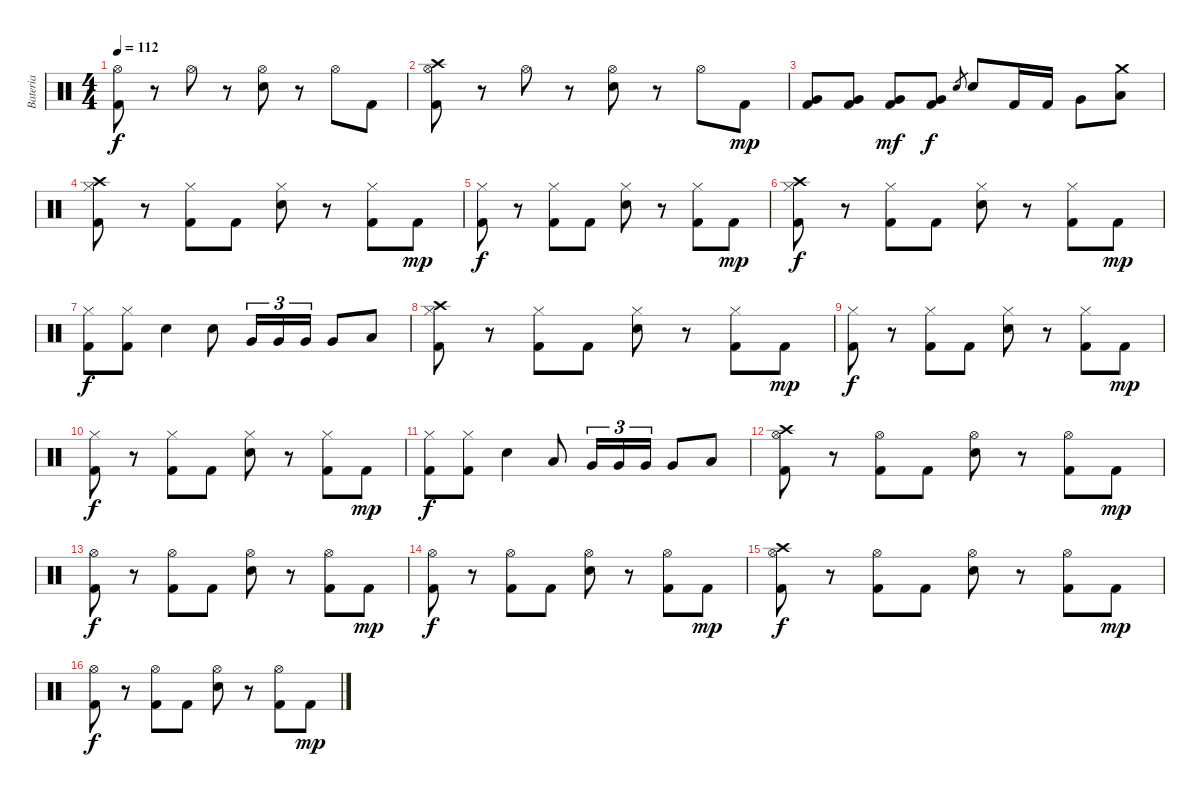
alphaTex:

\track ("Bateria" "Bateria") {instrument percussion}
\staff {score}
\articulation defaults
\ts (4 4)
\tempo 112
\clef neutral
\ks c
("Hi-Hat (open)" "Kick (hit) 2").8{dy f} r.8 "Hi-Hat (open)".8 r.8 ("Hi-Hat (open)" "Snare (hit) 2").8 r.8 "Hi-Hat (open)".8 "Kick (hit) 2".8 |
("Hi-Hat (open)" "Kick (hit) 2" "Crash high (hit)").8 r.8 "Hi-Hat (open)".8 r.8 ("Hi-Hat (open)" "Snare (hit) 2").8 r.8 "Hi-Hat (open)".8 "Kick (hit) 2".8{dy mp} |
("Very Low Tom (hit)" "Kick (hit) 2").8 ("Very Low Tom (hit)" "Kick (hit) 2").8 ("Very Low Tom (hit)" "Kick (hit) 2").8{dy mf} ("Very Low Tom (hit)" "Kick (hit) 2").8{dy f} "Snare (hit) 2".8{gr} "Snare (hit) 2".8 "Kick (hit) 2".16 "Kick (hit) 2".16 "Very Low Tom (hit)".8 ("Low Floor Tom (hit)" "Crash medium (hit)").8 |
("Hi-Hat (closed)" "Kick (hit) 2" "Crash high (hit)").8 r.8 ("Hi-Hat (closed)" "Kick (hit) 2").8 "Kick (hit) 2".8 ("Hi-Hat (closed)" "Snare (hit) 2").8 r.8 ("Hi-Hat (closed)" "Kick (hit) 2").8 "Kick (hit) 2".8{dy mp} |
("Hi-Hat (closed)" "Kick (hit) 2").8{dy f} r.8 ("Hi-Hat (closed)" "Kick (hit) 2").8 "Kick (hit) 2".8 ("Hi-Hat (closed)" "Snare (hit) 2").8 r.8 ("Hi-Hat (closed)" "Kick (hit) 2").8 "Kick (hit) 2".8{dy mp} |
("Hi-Hat (closed)" "Kick (hit) 2" "Crash high (hit)").8{dy f} r.8 ("Hi-Hat (closed)" "Kick (hit) 2").8 "Kick (hit) 2".8 ("Hi-Hat (closed)" "Snare (hit) 2").8 r.8 ("Hi-Hat (closed)" "Kick (hit) 2").8 "Kick (hit) 2".8{dy mp} |
("Hi-Hat (closed)" "Kick (hit) 2").8{dy f} ("Hi-Hat (closed)" "Kick (hit) 2").8 "Snare (hit) 2".4 "Snare (hit) 2".8 "Very Low Tom (hit)".16{tu (3 2)} "Very Low Tom (hit)".16{tu (3 2)} "Very Low Tom (hit)".16{tu (3 2)} "Very Low Tom (hit)".8 "Low Floor Tom (hit)".8 |
("Hi-Hat (closed)" "Kick (hit) 2" "Crash high (hit)").8 r.8 ("Hi-Hat (closed)" "Kick (hit) 2").8 "Kick (hit) 2".8 ("Hi-Hat (closed)" "Snare (hit) 2").8 r.8 ("Hi-Hat (closed)" "Kick (hit) 2").8 "Kick (hit) 2".8{dy mp} |
("Hi-Hat (closed)" "Kick (hit) 2").8{dy f} r.8 ("Hi-Hat (closed)" "Kick (hit) 2").8 "Kick (hit) 2".8 ("Hi-Hat (closed)" "Snare (hit) 2").8 r.8 ("Hi-Hat (closed)" "Kick (hit) 2").8 "Kick (hit) 2".8{dy mp} |
("Hi-Hat (closed)" "Kick (hit) 2").8{dy f} r.8 ("Hi-Hat (closed)" "Kick (hit) 2").8 "Kick (hit) 2".8 ("Hi-Hat (closed)" "Snare (hit) 2").8 r.8 ("Hi-Hat (closed)" "Kick (hit) 2").8 "Kick (hit) 2".8{dy mp} |
("Hi-Hat (closed)" "Kick (hit) 2").8{dy f} ("Hi-Hat (closed)" "Kick (hit) 2").8 "Snare (hit) 2".4 "Low Tom (hit)".8 "Very Low Tom (hit)".16{tu (3 2)} "Very Low Tom (hit)".16{tu (3 2)} "Very Low Tom (hit)".16{tu (3 2)} "Very Low Tom (hit)".8 "Low Floor Tom (hit)".8 |
("Hi-Hat (open)" "Kick (hit) 2" "Crash high (hit)").8 r.8 ("Hi-Hat (open)" "Kick (hit) 2").8 "Kick (hit) 2".8 ("Hi-Hat (open)" "Snare (hit) 2").8 r.8 ("Hi-Hat (open)" "Kick (hit) 2").8 "Kick (hit) 2".8{dy mp} |
("Hi-Hat (open)" "Kick (hit) 2").8{dy f} r.8 ("Hi-Hat (open)" "Kick (hit) 2").8 "Kick (hit) 2".8 ("Hi-Hat (open)" "Snare (hit) 2").8 r.8 ("Hi-Hat (open)" "Kick (hit) 2").8 "Kick (hit) 2".8{dy mp} |
("Hi-Hat (open)" "Kick (hit) 2").8{dy f} r.8 ("Hi-Hat (open)" "Kick (hit) 2").8 "Kick (hit) 2".8 ("Hi-Hat (open)" "Snare (hit) 2").8 r.8 ("Hi-Hat (open)" "Kick (hit) 2").8 "Kick (hit) 2".8{dy mp} |
("Hi-Hat (open)" "Kick (hit) 2" "Crash high (hit)").8{dy f} r.8 ("Hi-Hat (open)" "Kick (hit) 2").8 "Kick (hit) 2".8 ("Hi-Hat (open)" "Snare (hit) 2").8 r.8 ("Hi-Hat (open)" "Kick (hit) 2").8 "Kick (hit) 2".8{dy mp} |
("Hi-Hat (open)" "Kick (hit) 2").8{dy f} r.8 ("Hi-Hat (open)" "Kick (hit) 2").8 "Kick (hit) 2".8 ("Hi-Hat (open)" "Snare (hit) 2").8 r.8 ("Hi-Hat (open)" "Kick (hit) 2").8 "Kick (hit) 2".8{dy mp}
